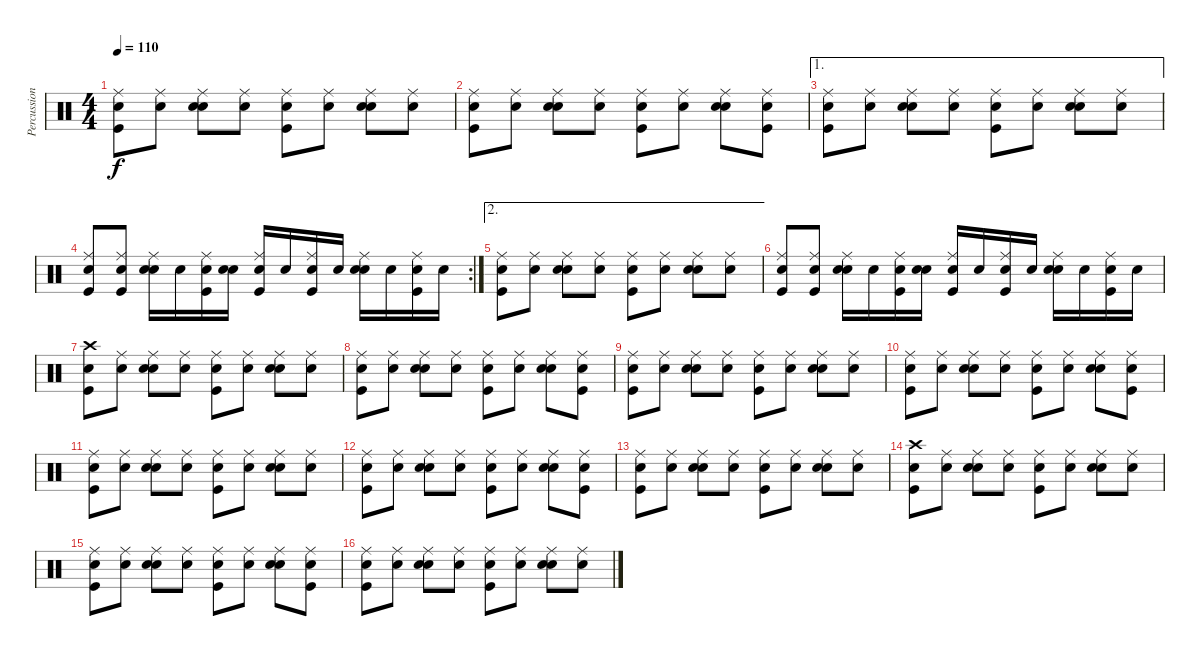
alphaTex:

\track ("Percussion" "Percussion") {instrument percussion}
\staff {score}
\articulation defaults
\ts (4 4)
\tempo 110
\clef neutral
\ks c
("Snare (hit)" "Ride (middle)" "Kick (hit)").8{dy f} ("Snare (hit)" "Ride (middle)").8 ("Snare (hit)" "Ride (middle)" "Snare (hit) 2").8 ("Snare (hit)" "Ride (middle)").8 ("Snare (hit)" "Ride (middle)" "Kick (hit)").8 ("Snare (hit)" "Ride (middle)").8 ("Snare (hit)" "Ride (middle)" "Snare (hit) 2").8 ("Snare (hit)" "Ride (middle)").8 |
("Snare (hit)" "Ride (middle)" "Kick (hit)").8 ("Snare (hit)" "Ride (middle)").8 ("Snare (hit)" "Ride (middle)" "Snare (hit) 2").8 ("Snare (hit)" "Ride (middle)").8 ("Snare (hit)" "Ride (middle)" "Kick (hit)").8 ("Snare (hit)" "Ride (middle)").8 ("Snare (hit)" "Ride (middle)" "Snare (hit) 2").8 ("Snare (hit)" "Ride (middle)" "Kick (hit)").8 |
\ae 1
("Snare (hit)" "Ride (middle)" "Kick (hit)").8 ("Snare (hit)" "Ride (middle)").8 ("Snare (hit)" "Ride (middle)" "Snare (hit) 2").8 ("Snare (hit)" "Ride (middle)").8 ("Snare (hit)" "Ride (middle)" "Kick (hit)").8 ("Snare (hit)" "Ride (middle)").8 ("Snare (hit)" "Ride (middle)" "Snare (hit) 2").8 ("Snare (hit)" "Ride (middle)").8 |
\rc 2
("Snare (hit)" "Ride (middle)" "Kick (hit)").8 ("Snare (hit)" "Ride (middle)" "Kick (hit)").8 ("Snare (hit)" "Ride (middle)" "Snare (hit) 2").16 "Snare (hit)".16 ("Snare (hit)" "Ride (middle)" "Kick (hit)").16 ("Snare (hit)" "Snare (hit) 2").16 ("Snare (hit)" "Ride (middle)" "Kick (hit)").16 "Snare (hit)".16 ("Snare (hit)" "Ride (middle)" "Kick (hit)").16 "Snare (hit)".16 ("Snare (hit)" "Ride (middle)" "Snare (hit) 2").16 "Snare (hit)".16 ("Snare (hit)" "Ride (middle)" "Kick (hit)").16 "Snare (hit)".16 |
\ae 2
("Snare (hit)" "Ride (middle)" "Kick (hit)").8 ("Snare (hit)" "Ride (middle)").8 ("Snare (hit)" "Ride (middle)" "Snare (hit) 2").8 ("Snare (hit)" "Ride (middle)").8 ("Snare (hit)" "Ride (middle)" "Kick (hit)").8 ("Snare (hit)" "Ride (middle)").8 ("Snare (hit)" "Ride (middle)" "Snare (hit) 2").8 ("Snare (hit)" "Ride (middle)").8 |
("Snare (hit)" "Ride (middle)" "Kick (hit)").8 ("Snare (hit)" "Ride (middle)" "Kick (hit)").8 ("Snare (hit)" "Ride (middle)" "Snare (hit) 2").16 "Snare (hit)".16 ("Snare (hit)" "Ride (middle)" "Kick (hit)").16 ("Snare (hit)" "Snare (hit) 2").16 ("Snare (hit)" "Ride (middle)" "Kick (hit)").16 "Snare (hit)".16 ("Snare (hit)" "Ride (middle)" "Kick (hit)").16 "Snare (hit)".16 ("Snare (hit)" "Ride (middle)" "Snare (hit) 2").16 "Snare (hit)".16 ("Snare (hit)" "Ride (middle)" "Kick (hit)").16 "Snare (hit)".16 |
("Snare (hit)" "Crash high (hit)" "Kick (hit)").8 ("Snare (hit)" "Ride (middle)").8 ("Snare (hit)" "Ride (middle)" "Snare (hit) 2").8 ("Snare (hit)" "Ride (middle)").8 ("Snare (hit)" "Ride (middle)" "Kick (hit)").8 ("Snare (hit)" "Ride (middle)").8 ("Snare (hit)" "Ride (middle)" "Snare (hit) 2").8 ("Snare (hit)" "Ride (middle)").8 |
("Snare (hit)" "Ride (middle)" "Kick (hit)").8 ("Snare (hit)" "Ride (middle)").8 ("Snare (hit)" "Ride (middle)" "Snare (hit) 2").8 ("Snare (hit)" "Ride (middle)").8 ("Snare (hit)" "Ride (middle)" "Kick (hit)").8 ("Snare (hit)" "Ride (middle)").8 ("Snare (hit)" "Ride (middle)" "Snare (hit) 2").8 ("Snare (hit)" "Ride (middle)" "Kick (hit)").8 |
("Snare (hit)" "Ride (middle)" "Kick (hit)").8 ("Snare (hit)" "Ride (middle)").8 ("Snare (hit)" "Ride (middle)" "Snare (hit) 2").8 ("Snare (hit)" "Ride (middle)").8 ("Snare (hit)" "Ride (middle)" "Kick (hit)").8 ("Snare (hit)" "Ride (middle)").8 ("Snare (hit)" "Ride (middle)" "Snare (hit) 2").8 ("Snare (hit)" "Ride (middle)").8 |
("Snare (hit)" "Ride (middle)" "Kick (hit)").8 ("Snare (hit)" "Ride (middle)").8 ("Snare (hit)" "Ride (middle)" "Snare (hit) 2").8 ("Snare (hit)" "Ride (middle)").8 ("Snare (hit)" "Ride (middle)" "Kick (hit)").8 ("Snare (hit)" "Ride (middle)").8 ("Snare (hit)" "Ride (middle)" "Snare (hit) 2").8 ("Snare (hit)" "Ride (middle)" "Kick (hit)").8 |
("Snare (hit)" "Ride (middle)" "Kick (hit)").8 ("Snare (hit)" "Ride (middle)").8 ("Snare (hit)" "Ride (middle)" "Snare (hit) 2").8 ("Snare (hit)" "Ride (middle)").8 ("Snare (hit)" "Ride (middle)" "Kick (hit)").8 ("Snare (hit)" "Ride (middle)").8 ("Snare (hit)" "Ride (middle)" "Snare (hit) 2").8 ("Snare (hit)" "Ride (middle)").8 |
("Snare (hit)" "Ride (middle)" "Kick (hit)").8 ("Snare (hit)" "Ride (middle)").8 ("Snare (hit)" "Ride (middle)" "Snare (hit) 2").8 ("Snare (hit)" "Ride (middle)").8 ("Snare (hit)" "Ride (middle)" "Kick (hit)").8 ("Snare (hit)" "Ride (middle)").8 ("Snare (hit)" "Ride (middle)" "Snare (hit) 2").8 ("Snare (hit)" "Ride (middle)" "Kick (hit)").8 |
("Snare (hit)" "Ride (middle)" "Kick (hit)").8 ("Snare (hit)" "Ride (middle)").8 ("Snare (hit)" "Ride (middle)" "Snare (hit) 2").8 ("Snare (hit)" "Ride (middle)").8 ("Snare (hit)" "Ride (middle)" "Kick (hit)").8 ("Snare (hit)" "Ride (middle)").8 ("Snare (hit)" "Ride (middle)" "Snare (hit) 2").8 ("Snare (hit)" "Ride (middle)").8 |
("Snare (hit)" "Crash high (hit)" "Kick (hit)").8 ("Snare (hit)" "Ride (middle)").8 ("Snare (hit)" "Ride (middle)" "Snare (hit) 2").8 ("Snare (hit)" "Ride (middle)").8 ("Snare (hit)" "Ride (middle)" "Kick (hit)").8 ("Snare (hit)" "Ride (middle)").8 ("Snare (hit)" "Ride (middle)" "Snare (hit) 2").8 ("Snare (hit)" "Ride (middle)").8 |
("Snare (hit)" "Ride (middle)" "Kick (hit)").8 ("Snare (hit)" "Ride (middle)").8 ("Snare (hit)" "Ride (middle)" "Snare (hit) 2").8 ("Snare (hit)" "Ride (middle)").8 ("Snare (hit)" "Ride (middle)" "Kick (hit)").8 ("Snare (hit)" "Ride (middle)").8 ("Snare (hit)" "Ride (middle)" "Snare (hit) 2").8 ("Snare (hit)" "Ride (middle)" "Kick (hit)").8 |
("Snare (hit)" "Ride (middle)" "Kick (hit)").8 ("Snare (hit)" "Ride (middle)").8 ("Snare (hit)" "Ride (middle)" "Snare (hit) 2").8 ("Snare (hit)" "Ride (middle)").8 ("Snare (hit)" "Ride (middle)" "Kick (hit)").8 ("Snare (hit)" "Ride (middle)").8 ("Snare (hit)" "Ride (middle)" "Snare (hit) 2").8 ("Snare (hit)" "Ride (middle)").8
